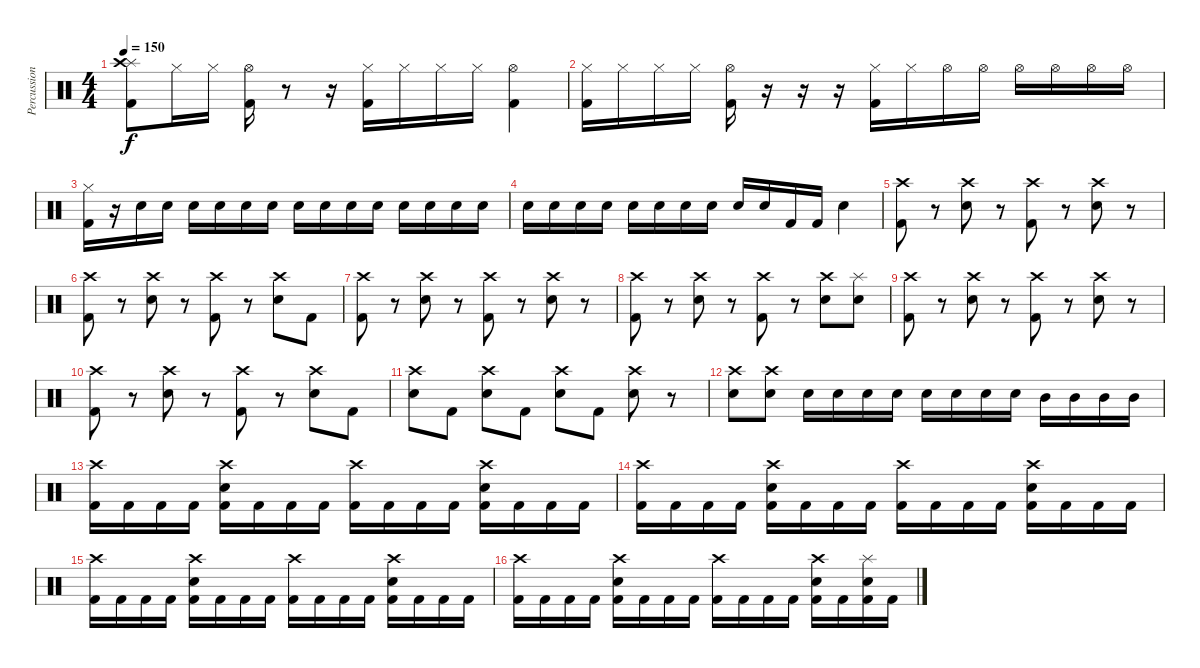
\track ("Percussion" "Percussion") {instrument percussion}
\staff {score}
\articulation defaults
\ts (4 4)
\tempo 150
\clef neutral
\ks c
("Splash (hit)" "Crash high (hit)" "Kick (hit) 2").8{dy f} "Hi-Hat (closed)".16 "Hi-Hat (closed)".16 ("Hi-Hat (open)" "Kick (hit) 2").16 r.8 r.16 ("Hi-Hat (closed)" "Kick (hit) 2").16 "Hi-Hat (closed)".16 "Hi-Hat (closed)".16 "Hi-Hat (closed)".16 ("Hi-Hat (open)" "Kick (hit) 2").4 |
("Hi-Hat (closed)" "Kick (hit) 2").16 "Hi-Hat (closed)".16 "Hi-Hat (closed)".16 "Hi-Hat (closed)".16 ("Hi-Hat (open)" "Kick (hit) 2").16 r.16 r.16 r.16 ("Hi-Hat (closed)" "Kick (hit) 2").16 "Hi-Hat (closed)".16 "Hi-Hat (open)".16 "Hi-Hat (open)".16 "Hi-Hat (open)".16 "Hi-Hat (open)".16 "Hi-Hat (open)".16 "Hi-Hat (open)".16 |
("Hi-Hat (closed)" "Kick (hit) 2").16 r.16 "Snare (hit) 2".16 "Snare (hit) 2".16 "Snare (hit) 2".16 "Snare (hit) 2".16 "Snare (hit) 2".16 "Snare (hit) 2".16 "Snare (hit) 2".16 "Snare (hit) 2".16 "Snare (hit) 2".16 "Snare (hit) 2".16 "Snare (hit) 2".16 "Snare (hit) 2".16 "Snare (hit) 2".16 "Snare (hit) 2".16 |
"Snare (hit) 2".16 "Snare (hit) 2".16 "Snare (hit) 2".16 "Snare (hit) 2".16 "Snare (hit) 2".16 "Snare (hit) 2".16 "Snare (hit) 2".16 "Snare (hit) 2".16 "Snare (hit) 2".16 "Snare (hit) 2".16 "Kick (hit) 2".16 "Kick (hit) 2".16 "Snare (hit) 2".4 |
("Crash high (hit)" "Kick (hit) 2").8 r.8 ("Crash high (hit)" "Snare (hit) 2").8 r.8 ("Crash high (hit)" "Kick (hit) 2").8 r.8 ("Crash high (hit)" "Snare (hit) 2").8 r.8 |
("Crash high (hit)" "Kick (hit) 2").8 r.8 ("Crash high (hit)" "Snare (hit) 2").8 r.8 ("Crash high (hit)" "Kick (hit) 2").8 r.8 ("Crash high (hit)" "Snare (hit) 2").8 "Kick (hit) 2".8 |
("Crash high (hit)" "Kick (hit) 2").8 r.8 ("Crash high (hit)" "Snare (hit) 2").8 r.8 ("Crash high (hit)" "Kick (hit) 2").8 r.8 ("Crash high (hit)" "Snare (hit) 2").8 r.8 |
("Crash high (hit)" "Kick (hit) 2").8 r.8 ("Crash high (hit)" "Snare (hit) 2").8 r.8 ("Crash high (hit)" "Kick (hit) 2").8 r.8 ("Crash high (hit)" "Snare (hit) 2").8 ("Splash (hit)" "Snare (hit) 2").8 |
("Crash high (hit)" "Kick (hit) 2").8 r.8 ("Crash high (hit)" "Snare (hit) 2").8 r.8 ("Crash high (hit)" "Kick (hit) 2").8 r.8 ("Crash high (hit)" "Snare (hit) 2").8 r.8 |
("Crash high (hit)" "Kick (hit) 2").8 r.8 ("Crash high (hit)" "Snare (hit) 2").8 r.8 ("Crash high (hit)" "Kick (hit) 2").8 r.8 ("Crash high (hit)" "Snare (hit) 2").8 "Kick (hit) 2".8 |
("Crash high (hit)" "Snare (hit) 2").8 "Kick (hit) 2".8 ("Crash high (hit)" "Snare (hit) 2").8 "Kick (hit) 2".8 ("Crash high (hit)" "Snare (hit) 2").8 "Kick (hit) 2".8 ("Crash high (hit)" "Snare (hit) 2").8 r.8 |
("Crash high (hit)" "Snare (hit) 2").8 ("Crash high (hit)" "Snare (hit) 2").8 "Snare (hit) 2".16 "Snare (hit) 2".16 "Snare (hit) 2".16 "Snare (hit) 2".16 "Snare (hit) 2".16 "Snare (hit) 2".16 "Snare (hit) 2".16 "Snare (hit) 2".16 "Mid Tom (hit)".16 "Mid Tom (hit)".16 "Mid Tom (hit)".16 "Mid Tom (hit)".16 |
("Crash high (hit)" "Kick (hit) 2").16 "Kick (hit) 2".16 "Kick (hit) 2".16 "Kick (hit) 2".16 ("Crash high (hit)" "Snare (hit) 2" "Kick (hit) 2").16 "Kick (hit) 2".16 "Kick (hit) 2".16 "Kick (hit) 2".16 ("Crash high (hit)" "Kick (hit) 2").16 "Kick (hit) 2".16 "Kick (hit) 2".16 "Kick (hit) 2".16 ("Crash high (hit)" "Snare (hit) 2" "Kick (hit) 2").16 "Kick (hit) 2".16 "Kick (hit) 2".16 "Kick (hit) 2".16 |
("Crash high (hit)" "Kick (hit) 2").16 "Kick (hit) 2".16 "Kick (hit) 2".16 "Kick (hit) 2".16 ("Crash high (hit)" "Snare (hit) 2" "Kick (hit) 2").16 "Kick (hit) 2".16 "Kick (hit) 2".16 "Kick (hit) 2".16 ("Crash high (hit)" "Kick (hit) 2").16 "Kick (hit) 2".16 "Kick (hit) 2".16 "Kick (hit) 2".16 ("Crash high (hit)" "Snare (hit) 2" "Kick (hit) 2").16 "Kick (hit) 2".16 "Kick (hit) 2".16 "Kick (hit) 2".16 |
("Crash high (hit)" "Kick (hit) 2").16 "Kick (hit) 2".16 "Kick (hit) 2".16 "Kick (hit) 2".16 ("Crash high (hit)" "Snare (hit) 2" "Kick (hit) 2").16 "Kick (hit) 2".16 "Kick (hit) 2".16 "Kick (hit) 2".16 ("Crash high (hit)" "Kick (hit) 2").16 "Kick (hit) 2".16 "Kick (hit) 2".16 "Kick (hit) 2".16 ("Crash high (hit)" "Snare (hit) 2" "Kick (hit) 2").16 "Kick (hit) 2".16 "Kick (hit) 2".16 "Kick (hit) 2".16 |
("Crash high (hit)" "Kick (hit) 2").16 "Kick (hit) 2".16 "Kick (hit) 2".16 "Kick (hit) 2".16 ("Crash high (hit)" "Snare (hit) 2" "Kick (hit) 2").16 "Kick (hit) 2".16 "Kick (hit) 2".16 "Kick (hit) 2".16 ("Crash high (hit)" "Kick (hit) 2").16 "Kick (hit) 2".16 "Kick (hit) 2".16 "Kick (hit) 2".16 ("Crash high (hit)" "Snare (hit) 2" "Kick (hit) 2").16 "Kick (hit) 2".16 ("Splash (hit)" "Snare (hit) 2" "Kick (hit) 2").16 "Kick (hit) 2".16
